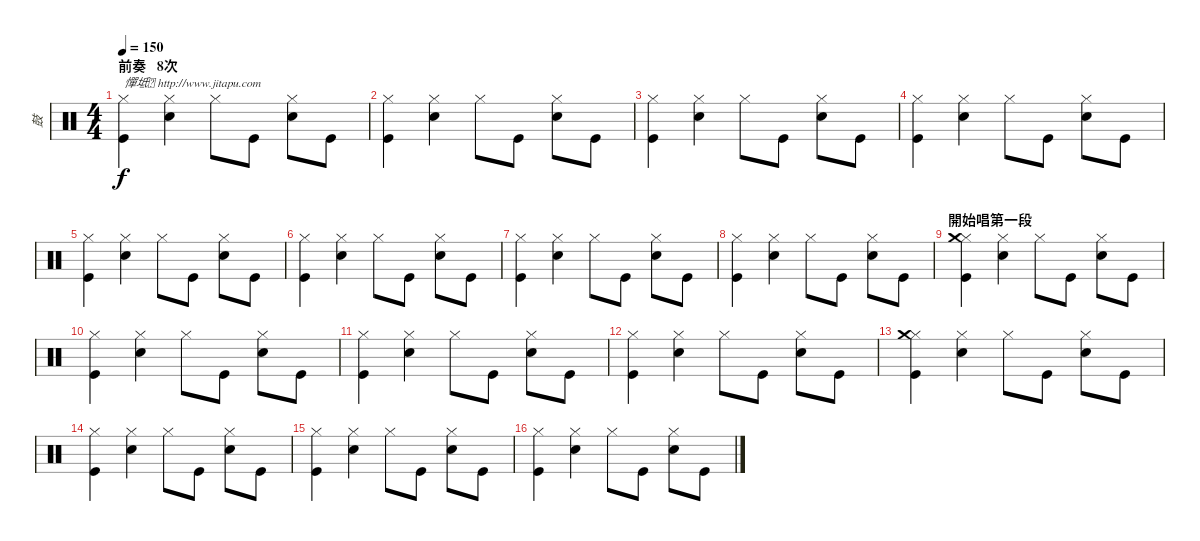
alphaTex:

\track ("鼓" "鼓") {instrument percussion}
\staff {score}
\articulation defaults
\ts (4 4)
\section ("" "前奏   8次")
\tempo 150
\clef neutral
\ks c
("Kick (hit)" "Hi-Hat (closed)").4{txt "憚坻 http://www.jitapu.com" dy f} ("Snare (hit) 2" "Hi-Hat (closed)").4 "Hi-Hat (closed)".8 "Kick (hit)".8 ("Snare (hit) 2" "Hi-Hat (closed)").8 "Kick (hit)".8 |
("Kick (hit)" "Hi-Hat (closed)").4 ("Snare (hit) 2" "Hi-Hat (closed)").4 "Hi-Hat (closed)".8 "Kick (hit)".8 ("Snare (hit) 2" "Hi-Hat (closed)").8 "Kick (hit)".8 |
("Kick (hit)" "Hi-Hat (closed)").4 ("Snare (hit) 2" "Hi-Hat (closed)").4 "Hi-Hat (closed)".8 "Kick (hit)".8 ("Snare (hit) 2" "Hi-Hat (closed)").8 "Kick (hit)".8 |
("Kick (hit)" "Hi-Hat (closed)").4 ("Snare (hit) 2" "Hi-Hat (closed)").4 "Hi-Hat (closed)".8 "Kick (hit)".8 ("Snare (hit) 2" "Hi-Hat (closed)").8 "Kick (hit)".8 |
("Kick (hit)" "Hi-Hat (closed)").4 ("Snare (hit) 2" "Hi-Hat (closed)").4 "Hi-Hat (closed)".8 "Kick (hit)".8 ("Snare (hit) 2" "Hi-Hat (closed)").8 "Kick (hit)".8 |
("Kick (hit)" "Hi-Hat (closed)").4 ("Snare (hit) 2" "Hi-Hat (closed)").4 "Hi-Hat (closed)".8 "Kick (hit)".8 ("Snare (hit) 2" "Hi-Hat (closed)").8 "Kick (hit)".8 |
("Kick (hit)" "Hi-Hat (closed)").4 ("Snare (hit) 2" "Hi-Hat (closed)").4 "Hi-Hat (closed)".8 "Kick (hit)".8 ("Snare (hit) 2" "Hi-Hat (closed)").8 "Kick (hit)".8 |
("Kick (hit)" "Hi-Hat (closed)").4 ("Snare (hit) 2" "Hi-Hat (closed)").4 "Hi-Hat (closed)".8 "Kick (hit)".8 ("Snare (hit) 2" "Hi-Hat (closed)").8 "Kick (hit)".8 |
\section ("" "開始唱第一段")
("Kick (hit)" "Hi-Hat (closed)" "Crash medium (hit)").4 ("Snare (hit) 2" "Hi-Hat (closed)").4 "Hi-Hat (closed)".8 "Kick (hit)".8 ("Snare (hit) 2" "Hi-Hat (closed)").8 "Kick (hit)".8 |
("Kick (hit)" "Hi-Hat (closed)").4 ("Snare (hit) 2" "Hi-Hat (closed)").4 "Hi-Hat (closed)".8 "Kick (hit)".8 ("Snare (hit) 2" "Hi-Hat (closed)").8 "Kick (hit)".8 |
("Kick (hit)" "Hi-Hat (closed)").4 ("Snare (hit) 2" "Hi-Hat (closed)").4 "Hi-Hat (closed)".8 "Kick (hit)".8 ("Snare (hit) 2" "Hi-Hat (closed)").8 "Kick (hit)".8 |
("Kick (hit)" "Hi-Hat (closed)").4 ("Snare (hit) 2" "Hi-Hat (closed)").4 "Hi-Hat (closed)".8 "Kick (hit)".8 ("Snare (hit) 2" "Hi-Hat (closed)").8 "Kick (hit)".8 |
("Kick (hit)" "Hi-Hat (closed)" "Crash medium (hit)").4 ("Snare (hit) 2" "Hi-Hat (closed)").4 "Hi-Hat (closed)".8 "Kick (hit)".8 ("Snare (hit) 2" "Hi-Hat (closed)").8 "Kick (hit)".8 |
("Kick (hit)" "Hi-Hat (closed)").4 ("Snare (hit) 2" "Hi-Hat (closed)").4 "Hi-Hat (closed)".8 "Kick (hit)".8 ("Snare (hit) 2" "Hi-Hat (closed)").8 "Kick (hit)".8 |
("Kick (hit)" "Hi-Hat (closed)").4 ("Snare (hit) 2" "Hi-Hat (closed)").4 "Hi-Hat (closed)".8 "Kick (hit)".8 ("Snare (hit) 2" "Hi-Hat (closed)").8 "Kick (hit)".8 |
("Kick (hit)" "Hi-Hat (closed)").4 ("Snare (hit) 2" "Hi-Hat (closed)").4 "Hi-Hat (closed)".8 "Kick (hit)".8 ("Snare (hit) 2" "Hi-Hat (closed)").8 "Kick (hit)".8
